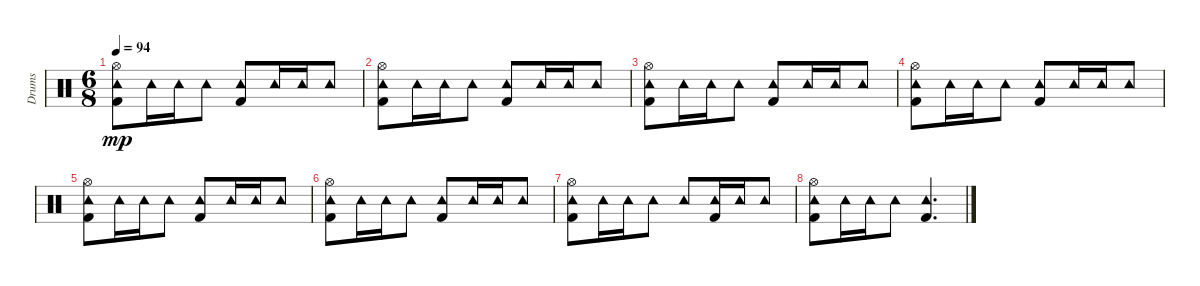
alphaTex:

\track ("Drums" "Drums") {instrument percussion}
\staff {score}
\articulation defaults
\ts (6 8)
\tempo 94
\clef neutral
\ks c
("Tambourine (hit)" "Kick (hit) 2" "Hi-Hat (open)").8{dy mp} "Tambourine (hit)".16 "Tambourine (hit)".16 "Tambourine (hit)".8 ("Tambourine (hit)" "Kick (hit) 2").8 "Tambourine (hit)".16 "Tambourine (hit)".16 "Tambourine (hit)".8 |
("Tambourine (hit)" "Kick (hit) 2" "Hi-Hat (open)").8 "Tambourine (hit)".16 "Tambourine (hit)".16 "Tambourine (hit)".8 ("Tambourine (hit)" "Kick (hit) 2").8 "Tambourine (hit)".16 "Tambourine (hit)".16 "Tambourine (hit)".8 |
("Tambourine (hit)" "Kick (hit) 2" "Hi-Hat (open)").8 "Tambourine (hit)".16 "Tambourine (hit)".16 "Tambourine (hit)".8 ("Tambourine (hit)" "Kick (hit) 2").8 "Tambourine (hit)".16 "Tambourine (hit)".16 "Tambourine (hit)".8 |
("Tambourine (hit)" "Kick (hit) 2" "Hi-Hat (open)").8 "Tambourine (hit)".16 "Tambourine (hit)".16 "Tambourine (hit)".8 ("Tambourine (hit)" "Kick (hit) 2").8 "Tambourine (hit)".16 "Tambourine (hit)".16 "Tambourine (hit)".8 |
("Tambourine (hit)" "Kick (hit) 2" "Hi-Hat (open)").8 "Tambourine (hit)".16 "Tambourine (hit)".16 "Tambourine (hit)".8 ("Tambourine (hit)" "Kick (hit) 2").8 "Tambourine (hit)".16 "Tambourine (hit)".16 "Tambourine (hit)".8 |
("Tambourine (hit)" "Kick (hit) 2" "Hi-Hat (open)").8 "Tambourine (hit)".16 "Tambourine (hit)".16 "Tambourine (hit)".8 ("Tambourine (hit)" "Kick (hit) 2").8 "Tambourine (hit)".16 "Tambourine (hit)".16 "Tambourine (hit)".8 |
("Tambourine (hit)" "Kick (hit) 2" "Hi-Hat (open)").8 "Tambourine (hit)".16 "Tambourine (hit)".16 "Tambourine (hit)".8 "Tambourine (hit)".8 ("Tambourine (hit)" "Kick (hit) 2").16 "Tambourine (hit)".16 "Tambourine (hit)".8 |
("Tambourine (hit)" "Kick (hit) 2" "Hi-Hat (open)").8 "Tambourine (hit)".16 "Tambourine (hit)".16 "Tambourine (hit)".8 ("Tambourine (hit)" "Kick (hit) 2").4{d}
